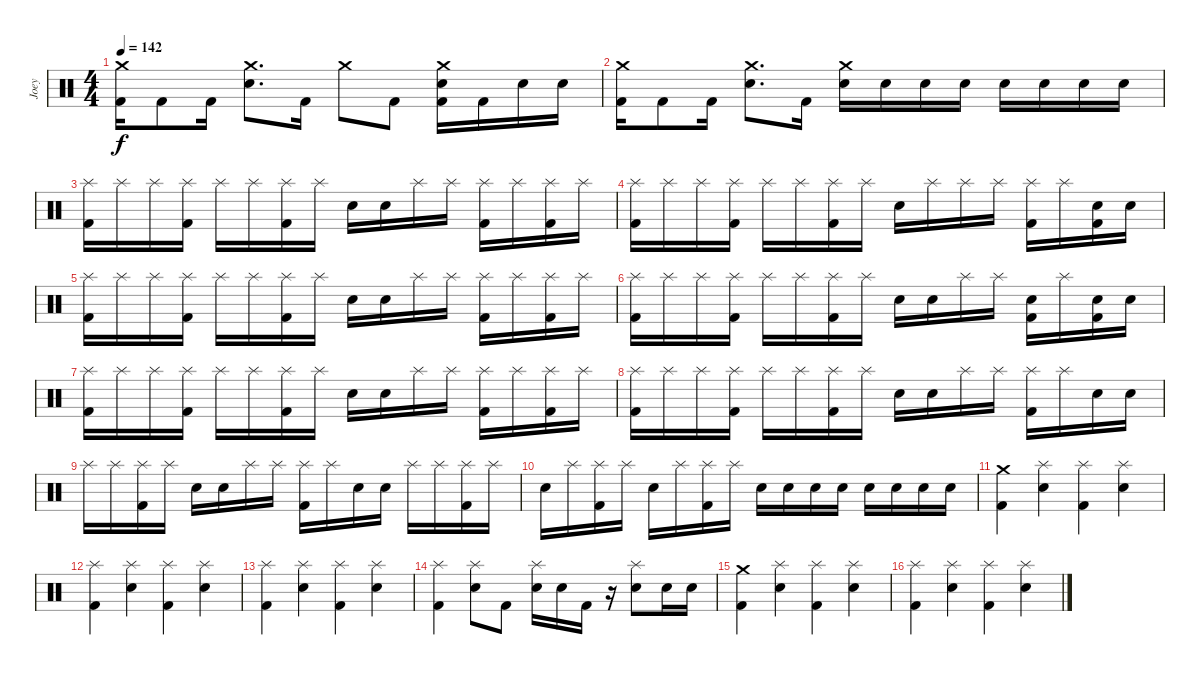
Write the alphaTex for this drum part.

\track ("Joey" "Joey") {instrument percussion}
\staff {score}
\articulation defaults
\ts (4 4)
\tempo 142
\clef neutral
\ks c
("Crash medium (hit)" "Kick (hit) 2").16{dy f} "Kick (hit) 2".8 "Kick (hit) 2".16 ("Crash medium (hit)" "Snare (hit) 2").8{d} "Kick (hit) 2".16 "Crash medium (hit)".8 "Kick (hit) 2".8 ("Crash medium (hit)" "Snare (hit) 2" "Kick (hit) 2").16 "Kick (hit) 2".16 "Snare (hit) 2".16 "Snare (hit) 2".16 |
("Crash medium (hit)" "Kick (hit) 2").16 "Kick (hit) 2".8 "Kick (hit) 2".16 ("Crash medium (hit)" "Snare (hit) 2").8{d} "Kick (hit) 2".16 ("Crash medium (hit)" "Snare (hit) 2").16 "Snare (hit) 2".16 "Snare (hit) 2".16 "Snare (hit) 2".16 "Snare (hit) 2".16 "Snare (hit) 2".16 "Snare (hit) 2".16 "Snare (hit) 2".16 |
("Splash (hit)" "Kick (hit) 2").16 "Splash (hit)".16 "Splash (hit)".16 ("Splash (hit)" "Kick (hit) 2").16 "Splash (hit)".16 "Splash (hit)".16 ("Splash (hit)" "Kick (hit) 2").16 "Splash (hit)".16 "Snare (hit) 2".16 "Snare (hit) 2".16 "Splash (hit)".16 "Splash (hit)".16 ("Splash (hit)" "Kick (hit) 2").16 "Splash (hit)".16 ("Splash (hit)" "Kick (hit) 2").16 "Splash (hit)".16 |
("Splash (hit)" "Kick (hit) 2").16 "Splash (hit)".16 "Splash (hit)".16 ("Splash (hit)" "Kick (hit) 2").16 "Splash (hit)".16 "Splash (hit)".16 ("Splash (hit)" "Kick (hit) 2").16 "Splash (hit)".16 "Snare (hit) 2".16 "Splash (hit)".16 "Splash (hit)".16 "Splash (hit)".16 ("Splash (hit)" "Kick (hit) 2").16 "Splash (hit)".16 ("Snare (hit) 2" "Kick (hit) 2").16 "Snare (hit) 2".16 |
("Splash (hit)" "Kick (hit) 2").16 "Splash (hit)".16 "Splash (hit)".16 ("Splash (hit)" "Kick (hit) 2").16 "Splash (hit)".16 "Splash (hit)".16 ("Splash (hit)" "Kick (hit) 2").16 "Splash (hit)".16 "Snare (hit) 2".16 "Snare (hit) 2".16 "Splash (hit)".16 "Splash (hit)".16 ("Splash (hit)" "Kick (hit) 2").16 "Splash (hit)".16 ("Splash (hit)" "Kick (hit) 2").16 "Splash (hit)".16 |
("Splash (hit)" "Kick (hit) 2").16 "Splash (hit)".16 "Splash (hit)".16 ("Splash (hit)" "Kick (hit) 2").16 "Splash (hit)".16 "Splash (hit)".16 ("Splash (hit)" "Kick (hit) 2").16 "Splash (hit)".16 "Snare (hit) 2".16 "Snare (hit) 2".16 "Splash (hit)".16 "Splash (hit)".16 ("Snare (hit) 2" "Kick (hit) 2").16 "Splash (hit)".16 ("Snare (hit) 2" "Kick (hit) 2").16 "Snare (hit) 2".16 |
("Splash (hit)" "Kick (hit) 2").16 "Splash (hit)".16 "Splash (hit)".16 ("Splash (hit)" "Kick (hit) 2").16 "Splash (hit)".16 "Splash (hit)".16 ("Splash (hit)" "Kick (hit) 2").16 "Splash (hit)".16 "Snare (hit) 2".16 "Snare (hit) 2".16 "Splash (hit)".16 "Splash (hit)".16 ("Splash (hit)" "Kick (hit) 2").16 "Splash (hit)".16 ("Splash (hit)" "Kick (hit) 2").16 "Splash (hit)".16 |
("Splash (hit)" "Kick (hit) 2").16 "Splash (hit)".16 "Splash (hit)".16 ("Splash (hit)" "Kick (hit) 2").16 "Splash (hit)".16 "Splash (hit)".16 ("Splash (hit)" "Kick (hit) 2").16 "Splash (hit)".16 "Snare (hit) 2".16 "Snare (hit) 2".16 "Splash (hit)".16 "Splash (hit)".16 ("Splash (hit)" "Kick (hit) 2").16 "Splash (hit)".16 "Snare (hit) 2".16 "Snare (hit) 2".16 |
"Splash (hit)".16 "Splash (hit)".16 ("Splash (hit)" "Kick (hit) 2").16 "Splash (hit)".16 "Snare (hit) 2".16 "Snare (hit) 2".16 "Splash (hit)".16 "Splash (hit)".16 ("Splash (hit)" "Kick (hit) 2").16 "Splash (hit)".16 "Snare (hit) 2".16 "Snare (hit) 2".16 "Splash (hit)".16 "Splash (hit)".16 ("Splash (hit)" "Kick (hit) 2").16 "Splash (hit)".16 |
"Snare (hit) 2".16 "Splash (hit)".16 ("Splash (hit)" "Kick (hit) 2").16 "Splash (hit)".16 "Snare (hit) 2".16 "Splash (hit)".16 ("Splash (hit)" "Kick (hit) 2").16 "Splash (hit)".16 "Snare (hit) 2".16 "Snare (hit) 2".16 "Snare (hit) 2".16 "Snare (hit) 2".16 "Snare (hit) 2".16 "Snare (hit) 2".16 "Snare (hit) 2".16 "Snare (hit) 2".16 |
("Crash medium (hit)" "Kick (hit) 2").4 ("Splash (hit)" "Snare (hit) 2").4 ("Splash (hit)" "Kick (hit) 2").4 ("Splash (hit)" "Snare (hit) 2").4 |
("Splash (hit)" "Kick (hit) 2").4 ("Splash (hit)" "Snare (hit) 2").4 ("Splash (hit)" "Kick (hit) 2").4 ("Splash (hit)" "Snare (hit) 2").4 |
("Splash (hit)" "Kick (hit) 2").4 ("Splash (hit)" "Snare (hit) 2").4 ("Splash (hit)" "Kick (hit) 2").4 ("Splash (hit)" "Snare (hit) 2").4 |
("Splash (hit)" "Kick (hit) 2").4 ("Splash (hit)" "Snare (hit) 2").8 "Kick (hit) 2".8 ("Splash (hit)" "Snare (hit) 2").16 "Snare (hit) 2".16 "Kick (hit) 2".16 r.16 ("Splash (hit)" "Snare (hit) 2").8 "Snare (hit) 2".16 "Snare (hit) 2".16 |
("Crash medium (hit)" "Kick (hit) 2").4 ("Splash (hit)" "Snare (hit) 2").4 ("Splash (hit)" "Kick (hit) 2").4 ("Splash (hit)" "Snare (hit) 2").4 |
("Splash (hit)" "Kick (hit) 2").4 ("Splash (hit)" "Snare (hit) 2").4 ("Splash (hit)" "Kick (hit) 2").4 ("Splash (hit)" "Snare (hit) 2").4
